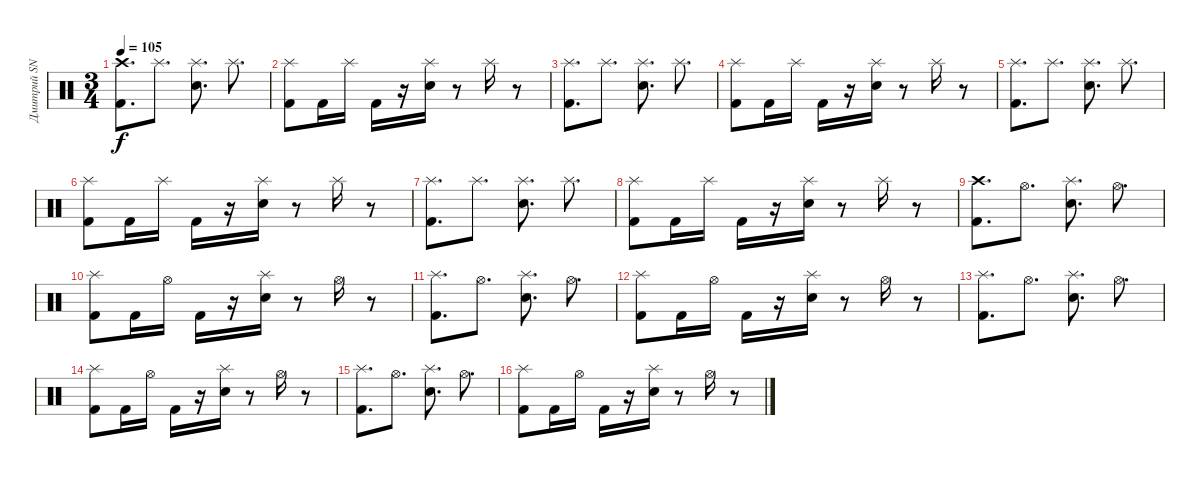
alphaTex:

\track ("Дмитрий SNAKE Хакимов" "Дмитрий SN") {instrument percussion}
\staff {score}
\articulation defaults
\ts (3 4)
\tempo 105
\clef neutral
\ks c
("Crash high (hit)" "Kick (hit) 2").8{d dy f} "Splash (hit)".8{d} ("Splash (hit)" "Snare (hit) 2").8{d} "Splash (hit)".8{d} |
("Splash (hit)" "Kick (hit) 2").8 "Kick (hit) 2".16 "Splash (hit)".16 "Kick (hit) 2".16 r.16 ("Splash (hit)" "Snare (hit) 2").16 r.8 "Splash (hit)".16 r.8 |
("Splash (hit)" "Kick (hit) 2").8{d} "Splash (hit)".8{d} ("Splash (hit)" "Snare (hit) 2").8{d} "Splash (hit)".8{d} |
("Splash (hit)" "Kick (hit) 2").8 "Kick (hit) 2".16 "Splash (hit)".16 "Kick (hit) 2".16 r.16 ("Splash (hit)" "Snare (hit) 2").16 r.8 "Splash (hit)".16 r.8 |
("Splash (hit)" "Kick (hit) 2").8{d} "Splash (hit)".8{d} ("Splash (hit)" "Snare (hit) 2").8{d} "Splash (hit)".8{d} |
("Splash (hit)" "Kick (hit) 2").8 "Kick (hit) 2".16 "Splash (hit)".16 "Kick (hit) 2".16 r.16 ("Splash (hit)" "Snare (hit) 2").16 r.8 "Splash (hit)".16 r.8 |
("Splash (hit)" "Kick (hit) 2").8{d} "Splash (hit)".8{d} ("Splash (hit)" "Snare (hit) 2").8{d} "Splash (hit)".8{d} |
("Splash (hit)" "Kick (hit) 2").8 "Kick (hit) 2".16 "Splash (hit)".16 "Kick (hit) 2".16 r.16 ("Splash (hit)" "Snare (hit) 2").16 r.8 "Splash (hit)".16 r.8 |
("Crash high (hit)" "Kick (hit) 2").8{d} "Hi-Hat (open)".8{d} ("Splash (hit)" "Snare (hit) 2").8{d} "Hi-Hat (open)".8{d} |
("Splash (hit)" "Kick (hit) 2").8 "Kick (hit) 2".16 "Hi-Hat (open)".16 "Kick (hit) 2".16 r.16 ("Splash (hit)" "Snare (hit) 2").16 r.8 "Hi-Hat (open)".16 r.8 |
("Splash (hit)" "Kick (hit) 2").8{d} "Hi-Hat (open)".8{d} ("Splash (hit)" "Snare (hit) 2").8{d} "Hi-Hat (open)".8{d} |
("Splash (hit)" "Kick (hit) 2").8 "Kick (hit) 2".16 "Hi-Hat (open)".16 "Kick (hit) 2".16 r.16 ("Splash (hit)" "Snare (hit) 2").16 r.8 "Hi-Hat (open)".16 r.8 |
("Splash (hit)" "Kick (hit) 2").8{d} "Hi-Hat (open)".8{d} ("Splash (hit)" "Snare (hit) 2").8{d} "Hi-Hat (open)".8{d} |
("Splash (hit)" "Kick (hit) 2").8 "Kick (hit) 2".16 "Hi-Hat (open)".16 "Kick (hit) 2".16 r.16 ("Splash (hit)" "Snare (hit) 2").16 r.8 "Hi-Hat (open)".16 r.8 |
("Splash (hit)" "Kick (hit) 2").8{d} "Hi-Hat (open)".8{d} ("Splash (hit)" "Snare (hit) 2").8{d} "Hi-Hat (open)".8{d} |
("Splash (hit)" "Kick (hit) 2").8 "Kick (hit) 2".16 "Hi-Hat (open)".16 "Kick (hit) 2".16 r.16 ("Splash (hit)" "Snare (hit) 2").16 r.8 "Hi-Hat (open)".16 r.8
